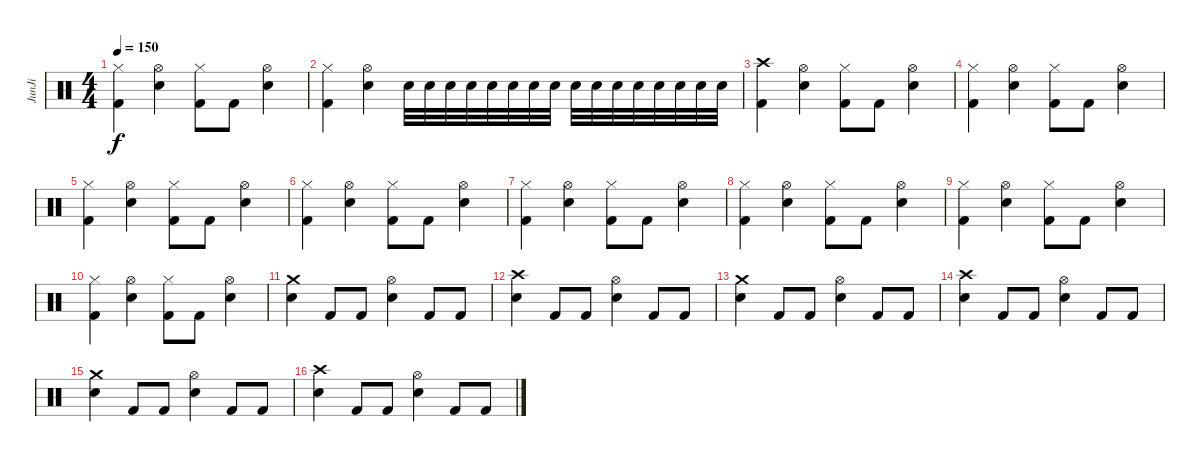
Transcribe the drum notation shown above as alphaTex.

\track ("JunJi" "JunJi") {instrument percussion}
\staff {score}
\articulation defaults
\ts (4 4)
\tempo 150
\clef neutral
\ks c
("Hi-Hat (closed)" "Kick (hit) 2").4{dy f} ("Electric Snare (hit)" "Hi-Hat (open)").4 ("Hi-Hat (closed)" "Kick (hit) 2").8 "Kick (hit) 2".8 ("Electric Snare (hit)" "Hi-Hat (open)").4 |
("Hi-Hat (closed)" "Kick (hit) 2").4 ("Electric Snare (hit)" "Hi-Hat (open)").4 "Electric Snare (hit)".32 "Electric Snare (hit)".32 "Electric Snare (hit)".32 "Electric Snare (hit)".32 "Electric Snare (hit)".32 "Electric Snare (hit)".32 "Electric Snare (hit)".32 "Electric Snare (hit)".32 "Electric Snare (hit)".32 "Electric Snare (hit)".32 "Electric Snare (hit)".32 "Electric Snare (hit)".32 "Electric Snare (hit)".32 "Electric Snare (hit)".32 "Electric Snare (hit)".32 "Electric Snare (hit)".32 |
("Crash high (hit)" "Kick (hit) 2").4 ("Electric Snare (hit)" "Hi-Hat (open)").4 ("Hi-Hat (closed)" "Kick (hit) 2").8 "Kick (hit) 2".8 ("Electric Snare (hit)" "Hi-Hat (open)").4 |
("Hi-Hat (closed)" "Kick (hit) 2").4 ("Electric Snare (hit)" "Hi-Hat (open)").4 ("Hi-Hat (closed)" "Kick (hit) 2").8 "Kick (hit) 2".8 ("Electric Snare (hit)" "Hi-Hat (open)").4 |
("Hi-Hat (closed)" "Kick (hit) 2").4 ("Electric Snare (hit)" "Hi-Hat (open)").4 ("Hi-Hat (closed)" "Kick (hit) 2").8 "Kick (hit) 2".8 ("Electric Snare (hit)" "Hi-Hat (open)").4 |
("Hi-Hat (closed)" "Kick (hit) 2").4 ("Electric Snare (hit)" "Hi-Hat (open)").4 ("Hi-Hat (closed)" "Kick (hit) 2").8 "Kick (hit) 2".8 ("Electric Snare (hit)" "Hi-Hat (open)").4 |
("Hi-Hat (closed)" "Kick (hit) 2").4 ("Electric Snare (hit)" "Hi-Hat (open)").4 ("Hi-Hat (closed)" "Kick (hit) 2").8 "Kick (hit) 2".8 ("Electric Snare (hit)" "Hi-Hat (open)").4 |
("Hi-Hat (closed)" "Kick (hit) 2").4 ("Electric Snare (hit)" "Hi-Hat (open)").4 ("Hi-Hat (closed)" "Kick (hit) 2").8 "Kick (hit) 2".8 ("Electric Snare (hit)" "Hi-Hat (open)").4 |
("Hi-Hat (closed)" "Kick (hit) 2").4 ("Electric Snare (hit)" "Hi-Hat (open)").4 ("Hi-Hat (closed)" "Kick (hit) 2").8 "Kick (hit) 2".8 ("Electric Snare (hit)" "Hi-Hat (open)").4 |
("Hi-Hat (closed)" "Kick (hit) 2").4 ("Electric Snare (hit)" "Hi-Hat (open)").4 ("Hi-Hat (closed)" "Kick (hit) 2").8 "Kick (hit) 2".8 ("Electric Snare (hit)" "Hi-Hat (open)").4 |
("Crash medium (hit)" "Electric Snare (hit)").4 "Kick (hit) 2".8 "Kick (hit) 2".8 ("Hi-Hat (open)" "Electric Snare (hit)").4 "Kick (hit) 2".8 "Kick (hit) 2".8 |
("Crash high (hit)" "Electric Snare (hit)").4 "Kick (hit) 2".8 "Kick (hit) 2".8 ("Hi-Hat (open)" "Electric Snare (hit)").4 "Kick (hit) 2".8 "Kick (hit) 2".8 |
("Crash medium (hit)" "Electric Snare (hit)").4 "Kick (hit) 2".8 "Kick (hit) 2".8 ("Hi-Hat (open)" "Electric Snare (hit)").4 "Kick (hit) 2".8 "Kick (hit) 2".8 |
("Crash high (hit)" "Electric Snare (hit)").4 "Kick (hit) 2".8 "Kick (hit) 2".8 ("Hi-Hat (open)" "Electric Snare (hit)").4 "Kick (hit) 2".8 "Kick (hit) 2".8 |
("Crash medium (hit)" "Electric Snare (hit)").4 "Kick (hit) 2".8 "Kick (hit) 2".8 ("Hi-Hat (open)" "Electric Snare (hit)").4 "Kick (hit) 2".8 "Kick (hit) 2".8 |
("Crash high (hit)" "Electric Snare (hit)").4 "Kick (hit) 2".8 "Kick (hit) 2".8 ("Hi-Hat (open)" "Electric Snare (hit)").4 "Kick (hit) 2".8 "Kick (hit) 2".8
